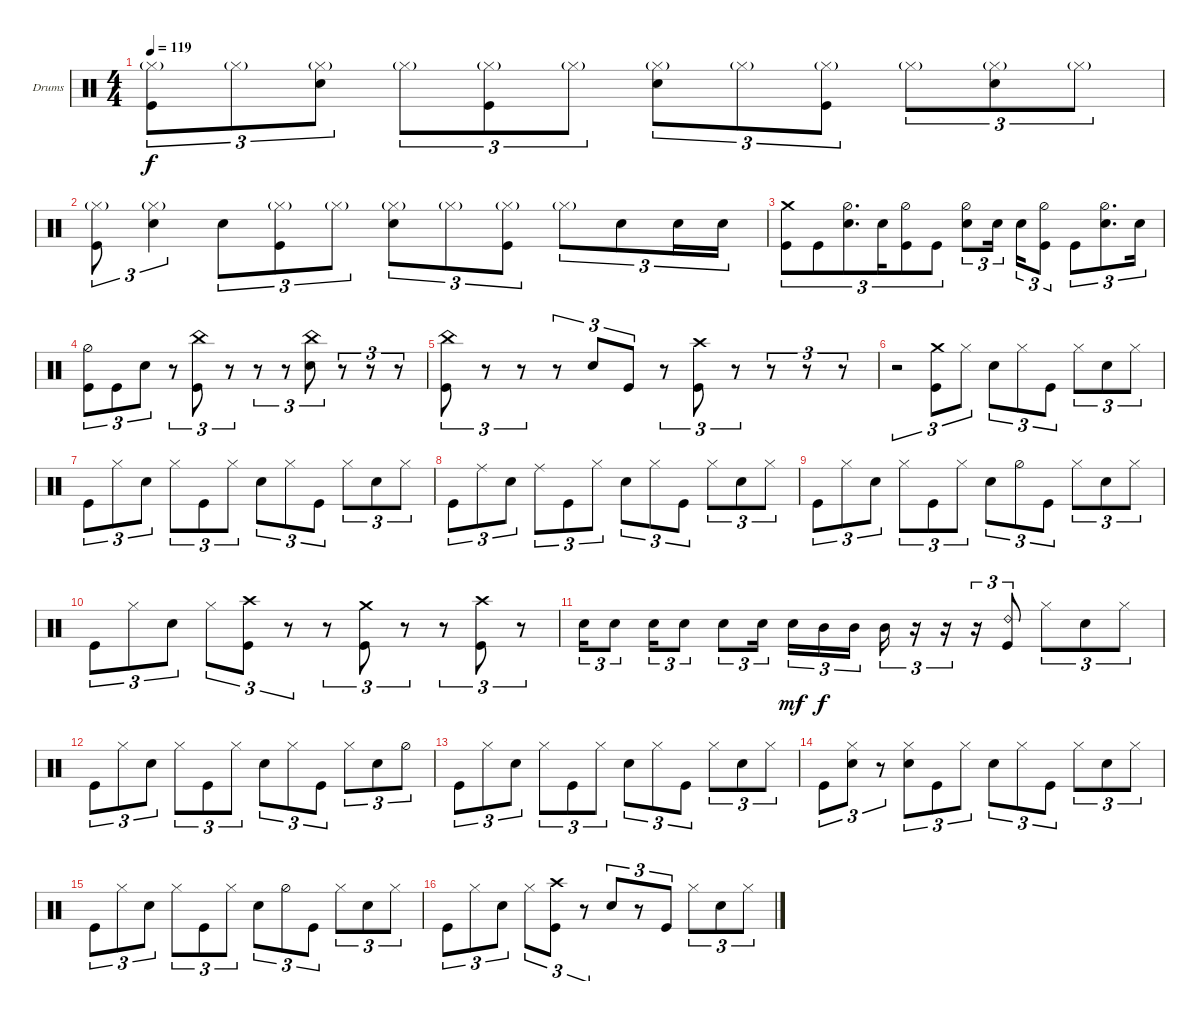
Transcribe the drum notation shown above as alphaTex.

\defaultSystemsLayout 4
\bracketExtendMode groupsimilarinstruments
\firstSystemTrackNameOrientation horizontal
\otherSystemsTrackNameOrientation horizontal
\track ("Drumkit" "Drums") {instrument percussion}
\staff {score}
\articulation defaults
\ts (4 4)
\tempo 119
\clef neutral
\ks c
("Kick (hit)" "Hi-Hat (closed)"{g}).8{tu (3 2) dy f} "Hi-Hat (closed)"{g}.8{tu (3 2)} ("Hi-Hat (closed)"{g} "Snare (hit) 2").8{tu (3 2)} "Hi-Hat (closed)"{g}.8{tu (3 2)} ("Hi-Hat (closed)"{g} "Kick (hit)").8{tu (3 2)} "Hi-Hat (closed)"{g}.8{tu (3 2)} ("Hi-Hat (closed)"{g} "Snare (hit) 2").8{tu (3 2)} "Hi-Hat (closed)"{g}.8{tu (3 2)} ("Hi-Hat (closed)"{g} "Kick (hit)").8{tu (3 2)} "Hi-Hat (closed)"{g}.8{tu (3 2)} ("Hi-Hat (closed)"{g} "Snare (hit) 2").8{tu (3 2)} "Hi-Hat (closed)"{g}.8{tu (3 2)} |
("Kick (hit)" "Hi-Hat (closed)"{g}).8{tu (3 2)} ("Snare (hit) 2" "Hi-Hat (closed)"{g}).4{tu (3 2)} "Snare (hit) 2".8{tu (3 2)} ("Kick (hit)" "Hi-Hat (closed)"{g}).8{tu (3 2)} "Hi-Hat (closed)"{g}.8{tu (3 2)} ("Hi-Hat (closed)"{g} "Snare (hit) 2").8{tu (3 2)} "Hi-Hat (closed)"{g}.8{tu (3 2)} ("Hi-Hat (closed)"{g} "Kick (hit)").8{tu (3 2)} "Hi-Hat (closed)"{g}.8{tu (3 2)} "Snare (hit) 2".8{tu (3 2)} "Snare (hit) 2".16{tu (3 2)} "Snare (hit) 2".16{tu (3 2)} |
("Kick (hit)" "Crash medium (hit)").8{tu (3 2)} "Kick (hit)".8{tu (3 2)} ("Snare (hit) 2" "Hi-Hat (half)").8{d tu (3 2)} "Snare (hit) 2".16{tu (3 2)} ("Kick (hit)" "Hi-Hat (half)").8{tu (3 2)} "Kick (hit)".8{tu (3 2)} ("Snare (hit) 2" "Hi-Hat (half)").8{tu (3 2)} "Snare (hit) 2".16{tu (3 2)} "Snare (hit) 2".16{tu (3 2)} ("Kick (hit)" "Hi-Hat (half)").8{tu (3 2)} "Kick (hit)".8{tu (3 2)} ("Snare (hit) 2" "Hi-Hat (half)").8{d tu (3 2)} "Snare (hit) 2".16{tu (3 2)} |
("Kick (hit)" "Hi-Hat (half)").8{tu (3 2)} "Kick (hit)".8{tu (3 2)} "Snare (hit) 2".8{tu (3 2)} r.8{tu (3 2)} ("Kick (hit)" "China (hit)").8{tu (3 2)} r.8{tu (3 2)} r.8{tu (3 2)} r.8{tu (3 2)} ("Snare (hit) 2" "China (hit)").8{tu (3 2)} r.8{tu (3 2)} r.8{tu (3 2)} r.8{tu (3 2)} |
("Kick (hit)" "China (hit)").8{tu (3 2)} r.8{tu (3 2)} r.8{tu (3 2)} r.8{tu (3 2)} "Snare (hit) 2".8{tu (3 2)} "Kick (hit)".8{tu (3 2)} r.8{tu (3 2)} ("Crash high (hit)" "Kick (hit)").8{tu (3 2)} r.8{tu (3 2)} r.8{tu (3 2)} r.8{tu (3 2)} r.8{tu (3 2)} |
r.2{tu (3 2)} ("Kick (hit)" "Crash medium (hit)").8{tu (3 2)} "Hi-Hat (closed)".8{tu (3 2)} "Snare (hit) 2".8{tu (3 2)} "Hi-Hat (closed)".8{tu (3 2)} "Kick (hit)".8{tu (3 2)} "Hi-Hat (closed)".8{tu (3 2)} "Snare (hit) 2".8{tu (3 2)} "Hi-Hat (closed)".8{tu (3 2)} |
"Kick (hit)".8{tu (3 2)} "Hi-Hat (closed)".8{tu (3 2)} "Snare (hit) 2".8{tu (3 2)} "Hi-Hat (closed)".8{tu (3 2)} "Kick (hit)".8{tu (3 2)} "Hi-Hat (closed)".8{tu (3 2)} "Snare (hit) 2".8{tu (3 2)} "Hi-Hat (closed)".8{tu (3 2)} "Kick (hit)".8{tu (3 2)} "Hi-Hat (closed)".8{tu (3 2)} "Snare (hit) 2".8{tu (3 2)} "Hi-Hat (closed)".8{tu (3 2)} |
"Kick (hit)".8{tu (3 2)} "Ride (middle)".8{tu (3 2)} "Snare (hit) 2".8{tu (3 2)} "Ride (middle)".8{tu (3 2)} "Kick (hit)".8{tu (3 2)} "Hi-Hat (closed)".8{tu (3 2)} "Snare (hit) 2".8{tu (3 2)} "Hi-Hat (closed)".8{tu (3 2)} "Kick (hit)".8{tu (3 2)} "Hi-Hat (closed)".8{tu (3 2)} "Snare (hit) 2".8{tu (3 2)} "Hi-Hat (closed)".8{tu (3 2)} |
"Kick (hit)".8{tu (3 2)} "Hi-Hat (closed)".8{tu (3 2)} "Snare (hit) 2".8{tu (3 2)} "Hi-Hat (closed)".8{tu (3 2)} "Kick (hit)".8{tu (3 2)} "Hi-Hat (closed)".8{tu (3 2)} "Snare (hit) 2".8{tu (3 2)} "Hi-Hat (half)".8{tu (3 2)} "Kick (hit)".8{tu (3 2)} "Hi-Hat (closed)".8{tu (3 2)} "Snare (hit) 2".8{tu (3 2)} "Hi-Hat (closed)".8{tu (3 2)} |
"Kick (hit)".8{tu (3 2)} "Hi-Hat (closed)".8{tu (3 2)} "Snare (hit) 2".8{tu (3 2)} "Hi-Hat (closed)".8{tu (3 2)} ("Kick (hit)" "Crash high (hit)").8{tu (3 2)} r.8{tu (3 2)} r.8{tu (3 2)} ("Kick (hit)" "Crash medium (hit)").8{tu (3 2)} r.8{tu (3 2)} r.8{tu (3 2)} ("Kick (hit)" "Crash high (hit)").8{tu (3 2)} r.8{tu (3 2)} |
"Snare (hit) 2".16{tu (3 2)} "Snare (hit) 2".8{tu (3 2)} "Snare (hit) 2".16{tu (3 2)} "Snare (hit) 2".8{tu (3 2)} "Snare (hit) 2".8{tu (3 2)} "Snare (hit) 2".16{tu (3 2)} "Snare (hit) 2".16{tu (3 2) dy mf} "Mid Tom (hit)".16{tu (3 2) dy f} "Mid Tom (hit)".16{tu (3 2)} "Mid Tom (hit)".16{tu (3 2)} r.16{tu (3 2)} r.16{tu (3 2)} r.16{tu (3 2)} ("Kick (hit)" "Ride (bell) 2").8{tu (3 2)} "Hi-Hat (closed)".8{tu (3 2)} "Snare (hit) 2".8{tu (3 2)} "Hi-Hat (closed)".8{tu (3 2)} |
"Kick (hit)".8{tu (3 2)} "Hi-Hat (closed)".8{tu (3 2)} "Snare (hit) 2".8{tu (3 2)} "Hi-Hat (closed)".8{tu (3 2)} "Kick (hit)".8{tu (3 2)} "Hi-Hat (closed)".8{tu (3 2)} "Snare (hit) 2".8{tu (3 2)} "Hi-Hat (closed)".8{tu (3 2)} "Kick (hit)".8{tu (3 2)} "Hi-Hat (closed)".8{tu (3 2)} "Snare (hit) 2".8{tu (3 2)} "Hi-Hat (half)".8{tu (3 2)} |
"Kick (hit)".8{tu (3 2)} "Hi-Hat (closed)".8{tu (3 2)} "Snare (hit) 2".8{tu (3 2)} "Hi-Hat (closed)".8{tu (3 2)} "Kick (hit)".8{tu (3 2)} "Hi-Hat (closed)".8{tu (3 2)} "Snare (hit) 2".8{tu (3 2)} "Hi-Hat (closed)".8{tu (3 2)} "Kick (hit)".8{tu (3 2)} "Hi-Hat (closed)".8{tu (3 2)} "Snare (hit) 2".8{tu (3 2)} "Hi-Hat (closed)".8{tu (3 2)} |
"Kick (hit)".8{tu (3 2)} ("Snare (hit) 2" "Hi-Hat (closed)").8{tu (3 2)} r.8{tu (3 2)} ("Snare (hit) 2" "Hi-Hat (closed)").8{tu (3 2)} "Kick (hit)".8{tu (3 2)} "Hi-Hat (closed)".8{tu (3 2)} "Snare (hit) 2".8{tu (3 2)} "Hi-Hat (closed)".8{tu (3 2)} "Kick (hit)".8{tu (3 2)} "Hi-Hat (closed)".8{tu (3 2)} "Snare (hit) 2".8{tu (3 2)} "Hi-Hat (closed)".8{tu (3 2)} |
"Kick (hit)".8{tu (3 2)} "Hi-Hat (closed)".8{tu (3 2)} "Snare (hit) 2".8{tu (3 2)} "Hi-Hat (closed)".8{tu (3 2)} "Kick (hit)".8{tu (3 2)} "Hi-Hat (closed)".8{tu (3 2)} "Snare (hit) 2".8{tu (3 2)} "Hi-Hat (half)".8{tu (3 2)} "Kick (hit)".8{tu (3 2)} "Hi-Hat (closed)".8{tu (3 2)} "Snare (hit) 2".8{tu (3 2)} "Hi-Hat (closed)".8{tu (3 2)} |
"Kick (hit)".8{tu (3 2)} "Hi-Hat (closed)".8{tu (3 2)} "Snare (hit) 2".8{tu (3 2)} "Hi-Hat (closed)".8{tu (3 2)} ("Kick (hit)" "Crash high (hit)").8{tu (3 2)} r.8{tu (3 2)} "Snare (hit) 2".8{tu (3 2)} r.8{tu (3 2)} "Kick (hit)".8{tu (3 2)} "Hi-Hat (closed)".8{tu (3 2)} "Snare (hit) 2".8{tu (3 2)} "Hi-Hat (closed)".8{tu (3 2)}
